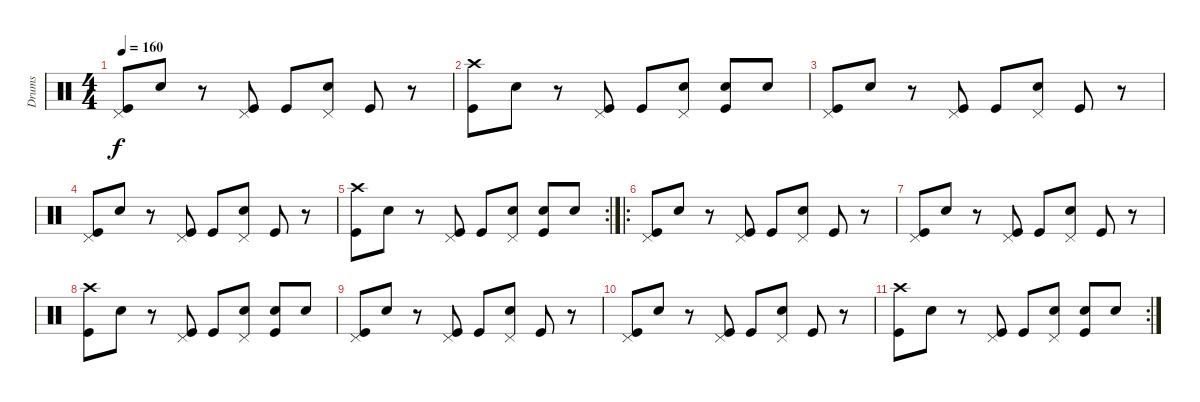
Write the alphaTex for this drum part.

\track ("Drums" "Drums") {instrument percussion}
\staff {score}
\articulation defaults
\ts (4 4)
\tempo 160
\clef neutral
\ks c
("Pedal Hi-Hat (hit)" "Kick (hit)").8{dy f} "Snare (hit) 2".8 r.8 ("Pedal Hi-Hat (hit)" "Kick (hit)").8 "Kick (hit)".8 ("Pedal Hi-Hat (hit)" "Snare (hit) 2").8 "Kick (hit)".8 r.8 |
("Crash high (hit)" "Kick (hit)").8 "Snare (hit) 2".8 r.8 ("Pedal Hi-Hat (hit)" "Kick (hit)").8 "Kick (hit)".8 ("Pedal Hi-Hat (hit)" "Snare (hit) 2").8 ("Snare (hit) 2" "Kick (hit)").8 "Snare (hit) 2".8 |
("Pedal Hi-Hat (hit)" "Kick (hit)").8 "Snare (hit) 2".8 r.8 ("Pedal Hi-Hat (hit)" "Kick (hit)").8 "Kick (hit)".8 ("Pedal Hi-Hat (hit)" "Snare (hit) 2").8 "Kick (hit)".8 r.8 |
("Pedal Hi-Hat (hit)" "Kick (hit)").8 "Snare (hit) 2".8 r.8 ("Pedal Hi-Hat (hit)" "Kick (hit)").8 "Kick (hit)".8 ("Pedal Hi-Hat (hit)" "Snare (hit) 2").8 "Kick (hit)".8 r.8 |
\rc 2
("Crash high (hit)" "Kick (hit)").8 "Snare (hit) 2".8 r.8 ("Pedal Hi-Hat (hit)" "Kick (hit)").8 "Kick (hit)".8 ("Pedal Hi-Hat (hit)" "Snare (hit) 2").8 ("Snare (hit) 2" "Kick (hit)").8 "Snare (hit) 2".8 |
\ro
("Pedal Hi-Hat (hit)" "Kick (hit)").8 "Snare (hit) 2".8 r.8 ("Pedal Hi-Hat (hit)" "Kick (hit)").8 "Kick (hit)".8 ("Pedal Hi-Hat (hit)" "Snare (hit) 2").8 "Kick (hit)".8 r.8 |
("Pedal Hi-Hat (hit)" "Kick (hit)").8 "Snare (hit) 2".8 r.8 ("Pedal Hi-Hat (hit)" "Kick (hit)").8 "Kick (hit)".8 ("Pedal Hi-Hat (hit)" "Snare (hit) 2").8 "Kick (hit)".8 r.8 |
("Crash high (hit)" "Kick (hit)").8 "Snare (hit) 2".8 r.8 ("Pedal Hi-Hat (hit)" "Kick (hit)").8 "Kick (hit)".8 ("Pedal Hi-Hat (hit)" "Snare (hit) 2").8 ("Snare (hit) 2" "Kick (hit)").8 "Snare (hit) 2".8 |
("Pedal Hi-Hat (hit)" "Kick (hit)").8 "Snare (hit) 2".8 r.8 ("Pedal Hi-Hat (hit)" "Kick (hit)").8 "Kick (hit)".8 ("Pedal Hi-Hat (hit)" "Snare (hit) 2").8 "Kick (hit)".8 r.8 |
("Pedal Hi-Hat (hit)" "Kick (hit)").8 "Snare (hit) 2".8 r.8 ("Pedal Hi-Hat (hit)" "Kick (hit)").8 "Kick (hit)".8 ("Pedal Hi-Hat (hit)" "Snare (hit) 2").8 "Kick (hit)".8 r.8 |
\rc 2
("Crash high (hit)" "Kick (hit)").8 "Snare (hit) 2".8 r.8 ("Pedal Hi-Hat (hit)" "Kick (hit)").8 "Kick (hit)".8 ("Pedal Hi-Hat (hit)" "Snare (hit) 2").8 ("Snare (hit) 2" "Kick (hit)").8 "Snare (hit) 2".8
